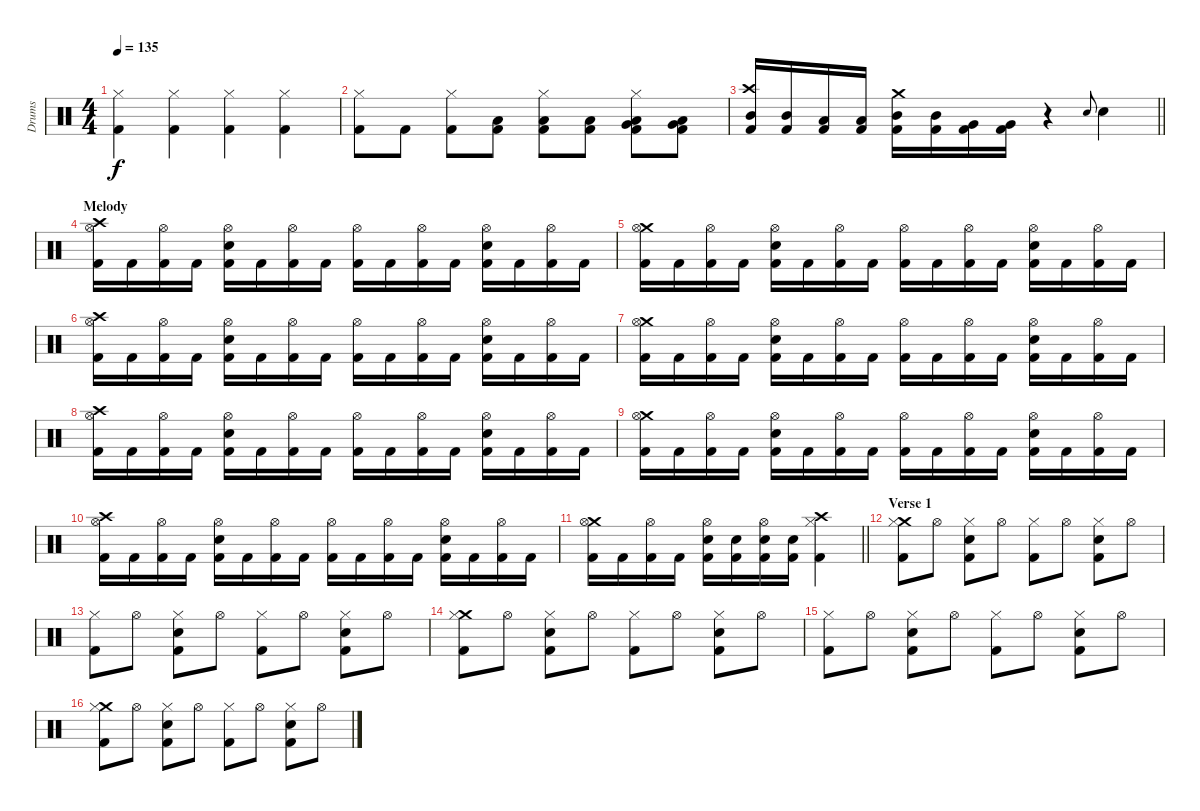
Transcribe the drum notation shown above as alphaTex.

\track ("Drums" "Drums") {instrument percussion}
\staff {score}
\articulation defaults
\ts (4 4)
\tempo 135
\clef neutral
\ks c
("Hi-Hat (closed)" "Kick (hit) 2").4{dy f} ("Hi-Hat (closed)" "Kick (hit) 2").4 ("Hi-Hat (closed)" "Kick (hit) 2").4 ("Hi-Hat (closed)" "Kick (hit) 2").4 |
("Hi-Hat (closed)" "Kick (hit) 2").8 "Kick (hit) 2".8 ("Hi-Hat (closed)" "Kick (hit) 2").8 ("Low Floor Tom (hit)" "Kick (hit) 2").8 ("Hi-Hat (closed)" "Low Floor Tom (hit)" "Kick (hit) 2").8 ("Low Floor Tom (hit)" "Kick (hit) 2").8 ("Hi-Hat (closed)" "Very Low Tom (hit)" "Low Floor Tom (hit)" "Kick (hit) 2").8 ("Very Low Tom (hit)" "Low Floor Tom (hit)" "Kick (hit) 2").8 |
\barLineRight lightlight
("Crash high (hit)" "Mid Tom (hit)" "Kick (hit) 2").16 ("Mid Tom (hit)" "Kick (hit) 2").16 ("Low Tom (hit)" "Kick (hit) 2").16 ("Low Tom (hit)" "Kick (hit) 2").16 ("Crash medium (hit)" "Mid Tom (hit)" "Kick (hit) 2").16 ("Mid Tom (hit)" "Kick (hit) 2").16 ("Very Low Tom (hit)" "Kick (hit) 2").16 ("Very Low Tom (hit)" "Kick (hit) 2").16 r.4 "Snare (hit) 2".8{gr onbeat} "Snare (hit) 2".4 |
\section ("" "Melody")
("Crash high (hit)" "Hi-Hat (open)" "Kick (hit) 2").16 "Kick (hit) 2".16 ("Hi-Hat (open)" "Kick (hit) 2").16 "Kick (hit) 2".16 ("Hi-Hat (open)" "Snare (hit) 2" "Kick (hit) 2").16 "Kick (hit) 2".16 ("Hi-Hat (open)" "Kick (hit) 2").16 "Kick (hit) 2".16 ("Hi-Hat (open)" "Kick (hit) 2").16 "Kick (hit) 2".16 ("Hi-Hat (open)" "Kick (hit) 2").16 "Kick (hit) 2".16 ("Hi-Hat (open)" "Snare (hit) 2" "Kick (hit) 2").16 "Kick (hit) 2".16 ("Hi-Hat (open)" "Kick (hit) 2").16 "Kick (hit) 2".16 |
("Crash medium (hit)" "Hi-Hat (open)" "Kick (hit) 2").16 "Kick (hit) 2".16 ("Hi-Hat (open)" "Kick (hit) 2").16 "Kick (hit) 2".16 ("Hi-Hat (open)" "Snare (hit) 2" "Kick (hit) 2").16 "Kick (hit) 2".16 ("Hi-Hat (open)" "Kick (hit) 2").16 "Kick (hit) 2".16 ("Hi-Hat (open)" "Kick (hit) 2").16 "Kick (hit) 2".16 ("Hi-Hat (open)" "Kick (hit) 2").16 "Kick (hit) 2".16 ("Hi-Hat (open)" "Snare (hit) 2" "Kick (hit) 2").16 "Kick (hit) 2".16 ("Hi-Hat (open)" "Kick (hit) 2").16 "Kick (hit) 2".16 |
("Crash high (hit)" "Hi-Hat (open)" "Kick (hit) 2").16 "Kick (hit) 2".16 ("Hi-Hat (open)" "Kick (hit) 2").16 "Kick (hit) 2".16 ("Hi-Hat (open)" "Snare (hit) 2" "Kick (hit) 2").16 "Kick (hit) 2".16 ("Hi-Hat (open)" "Kick (hit) 2").16 "Kick (hit) 2".16 ("Hi-Hat (open)" "Kick (hit) 2").16 "Kick (hit) 2".16 ("Hi-Hat (open)" "Kick (hit) 2").16 "Kick (hit) 2".16 ("Hi-Hat (open)" "Snare (hit) 2" "Kick (hit) 2").16 "Kick (hit) 2".16 ("Hi-Hat (open)" "Kick (hit) 2").16 "Kick (hit) 2".16 |
("Crash medium (hit)" "Hi-Hat (open)" "Kick (hit) 2").16 "Kick (hit) 2".16 ("Hi-Hat (open)" "Kick (hit) 2").16 "Kick (hit) 2".16 ("Hi-Hat (open)" "Snare (hit) 2" "Kick (hit) 2").16 "Kick (hit) 2".16 ("Hi-Hat (open)" "Kick (hit) 2").16 "Kick (hit) 2".16 ("Hi-Hat (open)" "Kick (hit) 2").16 "Kick (hit) 2".16 ("Hi-Hat (open)" "Kick (hit) 2").16 "Kick (hit) 2".16 ("Hi-Hat (open)" "Snare (hit) 2" "Kick (hit) 2").16 "Kick (hit) 2".16 ("Hi-Hat (open)" "Kick (hit) 2").16 "Kick (hit) 2".16 |
("Crash high (hit)" "Hi-Hat (open)" "Kick (hit) 2").16 "Kick (hit) 2".16 ("Hi-Hat (open)" "Kick (hit) 2").16 "Kick (hit) 2".16 ("Hi-Hat (open)" "Snare (hit) 2" "Kick (hit) 2").16 "Kick (hit) 2".16 ("Hi-Hat (open)" "Kick (hit) 2").16 "Kick (hit) 2".16 ("Hi-Hat (open)" "Kick (hit) 2").16 "Kick (hit) 2".16 ("Hi-Hat (open)" "Kick (hit) 2").16 "Kick (hit) 2".16 ("Hi-Hat (open)" "Snare (hit) 2" "Kick (hit) 2").16 "Kick (hit) 2".16 ("Hi-Hat (open)" "Kick (hit) 2").16 "Kick (hit) 2".16 |
("Crash medium (hit)" "Hi-Hat (open)" "Kick (hit) 2").16 "Kick (hit) 2".16 ("Hi-Hat (open)" "Kick (hit) 2").16 "Kick (hit) 2".16 ("Hi-Hat (open)" "Snare (hit) 2" "Kick (hit) 2").16 "Kick (hit) 2".16 ("Hi-Hat (open)" "Kick (hit) 2").16 "Kick (hit) 2".16 ("Hi-Hat (open)" "Kick (hit) 2").16 "Kick (hit) 2".16 ("Hi-Hat (open)" "Kick (hit) 2").16 "Kick (hit) 2".16 ("Hi-Hat (open)" "Snare (hit) 2" "Kick (hit) 2").16 "Kick (hit) 2".16 ("Hi-Hat (open)" "Kick (hit) 2").16 "Kick (hit) 2".16 |
("Crash high (hit)" "Hi-Hat (open)" "Kick (hit) 2").16 "Kick (hit) 2".16 ("Hi-Hat (open)" "Kick (hit) 2").16 "Kick (hit) 2".16 ("Hi-Hat (open)" "Snare (hit) 2" "Kick (hit) 2").16 "Kick (hit) 2".16 ("Hi-Hat (open)" "Kick (hit) 2").16 "Kick (hit) 2".16 ("Hi-Hat (open)" "Kick (hit) 2").16 "Kick (hit) 2".16 ("Hi-Hat (open)" "Kick (hit) 2").16 "Kick (hit) 2".16 ("Hi-Hat (open)" "Snare (hit) 2" "Kick (hit) 2").16 "Kick (hit) 2".16 ("Hi-Hat (open)" "Kick (hit) 2").16 "Kick (hit) 2".16 |
\barLineRight lightlight
("Crash medium (hit)" "Hi-Hat (open)" "Kick (hit) 2").16 "Kick (hit) 2".16 ("Hi-Hat (open)" "Kick (hit) 2").16 "Kick (hit) 2".16 ("Hi-Hat (open)" "Snare (hit) 2" "Kick (hit) 2").16 ("Snare (hit) 2" "Kick (hit) 2").16 ("Hi-Hat (open)" "Snare (hit) 2" "Kick (hit) 2").16 ("Snare (hit) 2" "Kick (hit) 2").16 ("Crash high (hit)" "Hi-Hat (closed)" "Kick (hit) 2").4 |
\section ("" "Verse 1")
("Crash medium (hit)" "Hi-Hat (closed)" "Kick (hit) 2").8 "Hi-Hat (open)".8 ("Hi-Hat (closed)" "Snare (hit) 2" "Kick (hit) 2").8 "Hi-Hat (open)".8 ("Hi-Hat (closed)" "Kick (hit) 2").8 "Hi-Hat (open)".8 ("Hi-Hat (closed)" "Snare (hit) 2" "Kick (hit) 2").8 "Hi-Hat (open)".8 |
("Hi-Hat (closed)" "Kick (hit) 2").8 "Hi-Hat (open)".8 ("Hi-Hat (closed)" "Snare (hit) 2" "Kick (hit) 2").8 "Hi-Hat (open)".8 ("Hi-Hat (closed)" "Kick (hit) 2").8 "Hi-Hat (open)".8 ("Hi-Hat (closed)" "Snare (hit) 2" "Kick (hit) 2").8 "Hi-Hat (open)".8 |
("Crash medium (hit)" "Hi-Hat (closed)" "Kick (hit) 2").8 "Hi-Hat (open)".8 ("Hi-Hat (closed)" "Snare (hit) 2" "Kick (hit) 2").8 "Hi-Hat (open)".8 ("Hi-Hat (closed)" "Kick (hit) 2").8 "Hi-Hat (open)".8 ("Hi-Hat (closed)" "Snare (hit) 2" "Kick (hit) 2").8 "Hi-Hat (open)".8 |
("Hi-Hat (closed)" "Kick (hit) 2").8 "Hi-Hat (open)".8 ("Hi-Hat (closed)" "Snare (hit) 2" "Kick (hit) 2").8 "Hi-Hat (open)".8 ("Hi-Hat (closed)" "Kick (hit) 2").8 "Hi-Hat (open)".8 ("Hi-Hat (closed)" "Snare (hit) 2" "Kick (hit) 2").8 "Hi-Hat (open)".8 |
("Crash medium (hit)" "Hi-Hat (closed)" "Kick (hit) 2").8 "Hi-Hat (open)".8 ("Hi-Hat (closed)" "Snare (hit) 2" "Kick (hit) 2").8 "Hi-Hat (open)".8 ("Hi-Hat (closed)" "Kick (hit) 2").8 "Hi-Hat (open)".8 ("Hi-Hat (closed)" "Snare (hit) 2" "Kick (hit) 2").8 "Hi-Hat (open)".8
